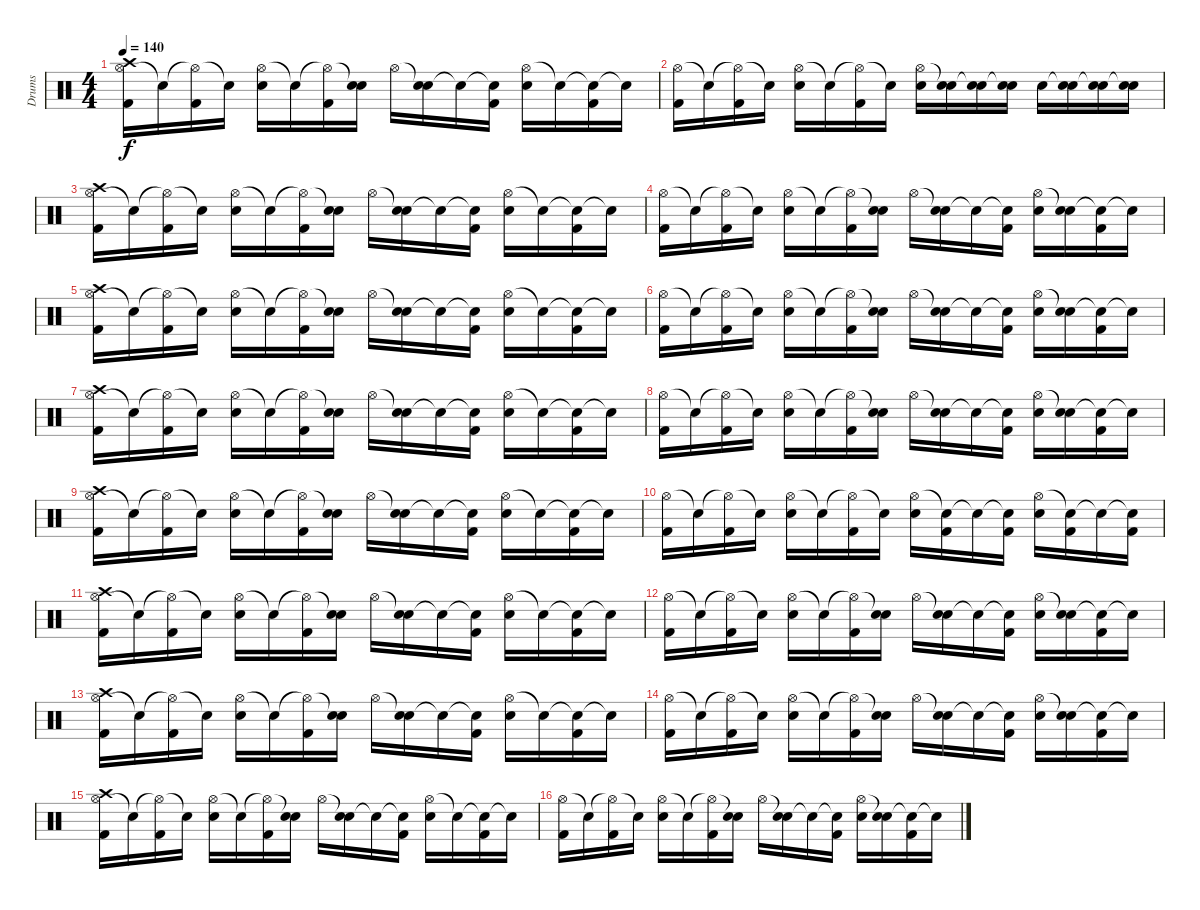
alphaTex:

\track ("Drums" "Drums") {instrument percussion}
\staff {score}
\articulation defaults
\ts (4 4)
\tempo 140
\clef neutral
\ks c
("Hi-Hat (open)" "Kick (hit) 2" "Crash high (hit)").16{dy f} "Snare (hit)"{t}.16 ("Hi-Hat (open)"{t} "Kick (hit) 2").16 "Snare (hit)"{t}.16 ("Hi-Hat (open)" "Electric Snare (hit)").16 "Snare (hit)"{t}.16 ("Hi-Hat (open)"{t} "Kick (hit) 2").16 ("Snare (hit)"{t} "Electric Snare (hit)").16 "Hi-Hat (open)".16 ("Snare (hit)"{t} "Electric Snare (hit)").16 "Snare (hit)"{t}.16 ("Snare (hit)"{t} "Kick (hit) 2").16 ("Hi-Hat (open)" "Electric Snare (hit)").16 "Snare (hit)"{t}.16 ("Snare (hit)"{t} "Kick (hit) 2").16 "Snare (hit)"{t}.16 |
("Hi-Hat (open)" "Kick (hit) 2").16 "Snare (hit)"{t}.16 ("Hi-Hat (open)"{t} "Kick (hit) 2").16 "Snare (hit)"{t}.16 ("Hi-Hat (open)" "Electric Snare (hit)").16 "Snare (hit)"{t}.16 ("Hi-Hat (open)"{t} "Kick (hit) 2").16 "Snare (hit)"{t}.16 ("Hi-Hat (open)" "Electric Snare (hit)").16 ("Snare (hit)"{t} "Electric Snare (hit)").16 ("Snare (hit)"{t} "Electric Snare (hit)").16 ("Snare (hit)"{t} "Electric Snare (hit)").16 "Electric Snare (hit)".16 ("Snare (hit)"{t} "Electric Snare (hit)").16 ("Snare (hit)"{t} "Electric Snare (hit)").16 ("Snare (hit)"{t} "Electric Snare (hit)").16 |
("Hi-Hat (open)" "Kick (hit) 2" "Crash high (hit)").16 "Snare (hit)"{t}.16 ("Hi-Hat (open)"{t} "Kick (hit) 2").16 "Snare (hit)"{t}.16 ("Hi-Hat (open)" "Electric Snare (hit)").16 "Snare (hit)"{t}.16 ("Hi-Hat (open)"{t} "Kick (hit) 2").16 ("Snare (hit)"{t} "Electric Snare (hit)").16 "Hi-Hat (open)".16 ("Snare (hit)"{t} "Electric Snare (hit)").16 "Snare (hit)"{t}.16 ("Snare (hit)"{t} "Kick (hit) 2").16 ("Hi-Hat (open)" "Electric Snare (hit)").16 "Snare (hit)"{t}.16 ("Snare (hit)"{t} "Kick (hit) 2").16 "Snare (hit)"{t}.16 |
("Hi-Hat (open)" "Kick (hit) 2").16 "Snare (hit)"{t}.16 ("Hi-Hat (open)"{t} "Kick (hit) 2").16 "Snare (hit)"{t}.16 ("Hi-Hat (open)" "Electric Snare (hit)").16 "Snare (hit)"{t}.16 ("Hi-Hat (open)"{t} "Kick (hit) 2").16 ("Snare (hit)"{t} "Electric Snare (hit)").16 "Hi-Hat (open)".16 ("Snare (hit)"{t} "Electric Snare (hit)").16 "Snare (hit)"{t}.16 ("Snare (hit)"{t} "Kick (hit) 2").16 ("Hi-Hat (open)" "Electric Snare (hit)").16 ("Snare (hit)"{t} "Electric Snare (hit)").16 ("Snare (hit)"{t} "Kick (hit) 2").16 "Snare (hit)"{t}.16 |
("Hi-Hat (open)" "Kick (hit) 2" "Crash high (hit)").16 "Snare (hit)"{t}.16 ("Hi-Hat (open)"{t} "Kick (hit) 2").16 "Snare (hit)"{t}.16 ("Hi-Hat (open)" "Electric Snare (hit)").16 "Snare (hit)"{t}.16 ("Hi-Hat (open)"{t} "Kick (hit) 2").16 ("Snare (hit)"{t} "Electric Snare (hit)").16 "Hi-Hat (open)".16 ("Snare (hit)"{t} "Electric Snare (hit)").16 "Snare (hit)"{t}.16 ("Snare (hit)"{t} "Kick (hit) 2").16 ("Hi-Hat (open)" "Electric Snare (hit)").16 "Snare (hit)"{t}.16 ("Snare (hit)"{t} "Kick (hit) 2").16 "Snare (hit)"{t}.16 |
("Hi-Hat (open)" "Kick (hit) 2").16 "Snare (hit)"{t}.16 ("Hi-Hat (open)"{t} "Kick (hit) 2").16 "Snare (hit)"{t}.16 ("Hi-Hat (open)" "Electric Snare (hit)").16 "Snare (hit)"{t}.16 ("Hi-Hat (open)"{t} "Kick (hit) 2").16 ("Snare (hit)"{t} "Electric Snare (hit)").16 "Hi-Hat (open)".16 ("Snare (hit)"{t} "Electric Snare (hit)").16 "Snare (hit)"{t}.16 ("Snare (hit)"{t} "Kick (hit) 2").16 ("Hi-Hat (open)" "Electric Snare (hit)").16 ("Snare (hit)"{t} "Electric Snare (hit)").16 ("Snare (hit)"{t} "Kick (hit) 2").16 "Snare (hit)"{t}.16 |
("Hi-Hat (open)" "Kick (hit) 2" "Crash high (hit)").16 "Snare (hit)"{t}.16 ("Hi-Hat (open)"{t} "Kick (hit) 2").16 "Snare (hit)"{t}.16 ("Hi-Hat (open)" "Electric Snare (hit)").16 "Snare (hit)"{t}.16 ("Hi-Hat (open)"{t} "Kick (hit) 2").16 ("Snare (hit)"{t} "Electric Snare (hit)").16 "Hi-Hat (open)".16 ("Snare (hit)"{t} "Electric Snare (hit)").16 "Snare (hit)"{t}.16 ("Snare (hit)"{t} "Kick (hit) 2").16 ("Hi-Hat (open)" "Electric Snare (hit)").16 "Snare (hit)"{t}.16 ("Snare (hit)"{t} "Kick (hit) 2").16 "Snare (hit)"{t}.16 |
("Hi-Hat (open)" "Kick (hit) 2").16 "Snare (hit)"{t}.16 ("Hi-Hat (open)"{t} "Kick (hit) 2").16 "Snare (hit)"{t}.16 ("Hi-Hat (open)" "Electric Snare (hit)").16 "Snare (hit)"{t}.16 ("Hi-Hat (open)"{t} "Kick (hit) 2").16 ("Snare (hit)"{t} "Electric Snare (hit)").16 "Hi-Hat (open)".16 ("Snare (hit)"{t} "Electric Snare (hit)").16 "Snare (hit)"{t}.16 ("Snare (hit)"{t} "Kick (hit) 2").16 ("Hi-Hat (open)" "Electric Snare (hit)").16 ("Snare (hit)"{t} "Electric Snare (hit)").16 ("Snare (hit)"{t} "Kick (hit) 2").16 "Snare (hit)"{t}.16 |
("Hi-Hat (open)" "Kick (hit) 2" "Crash high (hit)").16 "Snare (hit)"{t}.16 ("Hi-Hat (open)"{t} "Kick (hit) 2").16 "Snare (hit)"{t}.16 ("Hi-Hat (open)" "Electric Snare (hit)").16 "Snare (hit)"{t}.16 ("Hi-Hat (open)"{t} "Kick (hit) 2").16 ("Snare (hit)"{t} "Electric Snare (hit)").16 "Hi-Hat (open)".16 ("Snare (hit)"{t} "Electric Snare (hit)").16 "Snare (hit)"{t}.16 ("Snare (hit)"{t} "Kick (hit) 2").16 ("Hi-Hat (open)" "Electric Snare (hit)").16 "Snare (hit)"{t}.16 ("Snare (hit)"{t} "Kick (hit) 2").16 "Snare (hit)"{t}.16 |
("Hi-Hat (open)" "Kick (hit) 2").16 "Snare (hit)"{t}.16 ("Hi-Hat (open)"{t} "Kick (hit) 2").16 "Snare (hit)"{t}.16 ("Hi-Hat (open)" "Electric Snare (hit)").16 "Snare (hit)"{t}.16 ("Hi-Hat (open)"{t} "Kick (hit) 2").16 "Snare (hit)"{t}.16 ("Hi-Hat (open)" "Electric Snare (hit)").16 ("Snare (hit)"{t} "Kick (hit) 2").16 "Snare (hit)"{t}.16 ("Snare (hit)"{t} "Kick (hit) 2").16 ("Hi-Hat (open)" "Electric Snare (hit)").16 ("Snare (hit)"{t} "Kick (hit) 2").16 "Snare (hit)"{t}.16 ("Snare (hit)"{t} "Kick (hit) 2").16 |
("Hi-Hat (open)" "Kick (hit) 2" "Crash high (hit)").16 "Snare (hit)"{t}.16 ("Hi-Hat (open)"{t} "Kick (hit) 2").16 "Snare (hit)"{t}.16 ("Hi-Hat (open)" "Electric Snare (hit)").16 "Snare (hit)"{t}.16 ("Hi-Hat (open)"{t} "Kick (hit) 2").16 ("Snare (hit)"{t} "Electric Snare (hit)").16 "Hi-Hat (open)".16 ("Snare (hit)"{t} "Electric Snare (hit)").16 "Snare (hit)"{t}.16 ("Snare (hit)"{t} "Kick (hit) 2").16 ("Hi-Hat (open)" "Electric Snare (hit)").16 "Snare (hit)"{t}.16 ("Snare (hit)"{t} "Kick (hit) 2").16 "Snare (hit)"{t}.16 |
("Hi-Hat (open)" "Kick (hit) 2").16 "Snare (hit)"{t}.16 ("Hi-Hat (open)"{t} "Kick (hit) 2").16 "Snare (hit)"{t}.16 ("Hi-Hat (open)" "Electric Snare (hit)").16 "Snare (hit)"{t}.16 ("Hi-Hat (open)"{t} "Kick (hit) 2").16 ("Snare (hit)"{t} "Electric Snare (hit)").16 "Hi-Hat (open)".16 ("Snare (hit)"{t} "Electric Snare (hit)").16 "Snare (hit)"{t}.16 ("Snare (hit)"{t} "Kick (hit) 2").16 ("Hi-Hat (open)" "Electric Snare (hit)").16 ("Snare (hit)"{t} "Electric Snare (hit)").16 ("Snare (hit)"{t} "Kick (hit) 2").16 "Snare (hit)"{t}.16 |
("Hi-Hat (open)" "Kick (hit) 2" "Crash high (hit)").16 "Snare (hit)"{t}.16 ("Hi-Hat (open)"{t} "Kick (hit) 2").16 "Snare (hit)"{t}.16 ("Hi-Hat (open)" "Electric Snare (hit)").16 "Snare (hit)"{t}.16 ("Hi-Hat (open)"{t} "Kick (hit) 2").16 ("Snare (hit)"{t} "Electric Snare (hit)").16 "Hi-Hat (open)".16 ("Snare (hit)"{t} "Electric Snare (hit)").16 "Snare (hit)"{t}.16 ("Snare (hit)"{t} "Kick (hit) 2").16 ("Hi-Hat (open)" "Electric Snare (hit)").16 "Snare (hit)"{t}.16 ("Snare (hit)"{t} "Kick (hit) 2").16 "Snare (hit)"{t}.16 |
("Hi-Hat (open)" "Kick (hit) 2").16 "Snare (hit)"{t}.16 ("Hi-Hat (open)"{t} "Kick (hit) 2").16 "Snare (hit)"{t}.16 ("Hi-Hat (open)" "Electric Snare (hit)").16 "Snare (hit)"{t}.16 ("Hi-Hat (open)"{t} "Kick (hit) 2").16 ("Snare (hit)"{t} "Electric Snare (hit)").16 "Hi-Hat (open)".16 ("Snare (hit)"{t} "Electric Snare (hit)").16 "Snare (hit)"{t}.16 ("Snare (hit)"{t} "Kick (hit) 2").16 ("Hi-Hat (open)" "Electric Snare (hit)").16 ("Snare (hit)"{t} "Electric Snare (hit)").16 ("Snare (hit)"{t} "Kick (hit) 2").16 "Snare (hit)"{t}.16 |
("Hi-Hat (open)" "Kick (hit) 2" "Crash high (hit)").16 "Snare (hit)"{t}.16 ("Hi-Hat (open)"{t} "Kick (hit) 2").16 "Snare (hit)"{t}.16 ("Hi-Hat (open)" "Electric Snare (hit)").16 "Snare (hit)"{t}.16 ("Hi-Hat (open)"{t} "Kick (hit) 2").16 ("Snare (hit)"{t} "Electric Snare (hit)").16 "Hi-Hat (open)".16 ("Snare (hit)"{t} "Electric Snare (hit)").16 "Snare (hit)"{t}.16 ("Snare (hit)"{t} "Kick (hit) 2").16 ("Hi-Hat (open)" "Electric Snare (hit)").16 "Snare (hit)"{t}.16 ("Snare (hit)"{t} "Kick (hit) 2").16 "Snare (hit)"{t}.16 |
("Hi-Hat (open)" "Kick (hit) 2").16 "Snare (hit)"{t}.16 ("Hi-Hat (open)"{t} "Kick (hit) 2").16 "Snare (hit)"{t}.16 ("Hi-Hat (open)" "Electric Snare (hit)").16 "Snare (hit)"{t}.16 ("Hi-Hat (open)"{t} "Kick (hit) 2").16 ("Snare (hit)"{t} "Electric Snare (hit)").16 "Hi-Hat (open)".16 ("Snare (hit)"{t} "Electric Snare (hit)").16 "Snare (hit)"{t}.16 ("Snare (hit)"{t} "Kick (hit) 2").16 ("Hi-Hat (open)" "Electric Snare (hit)").16 ("Snare (hit)"{t} "Electric Snare (hit)").16 ("Snare (hit)"{t} "Kick (hit) 2").16 "Snare (hit)"{t}.16
